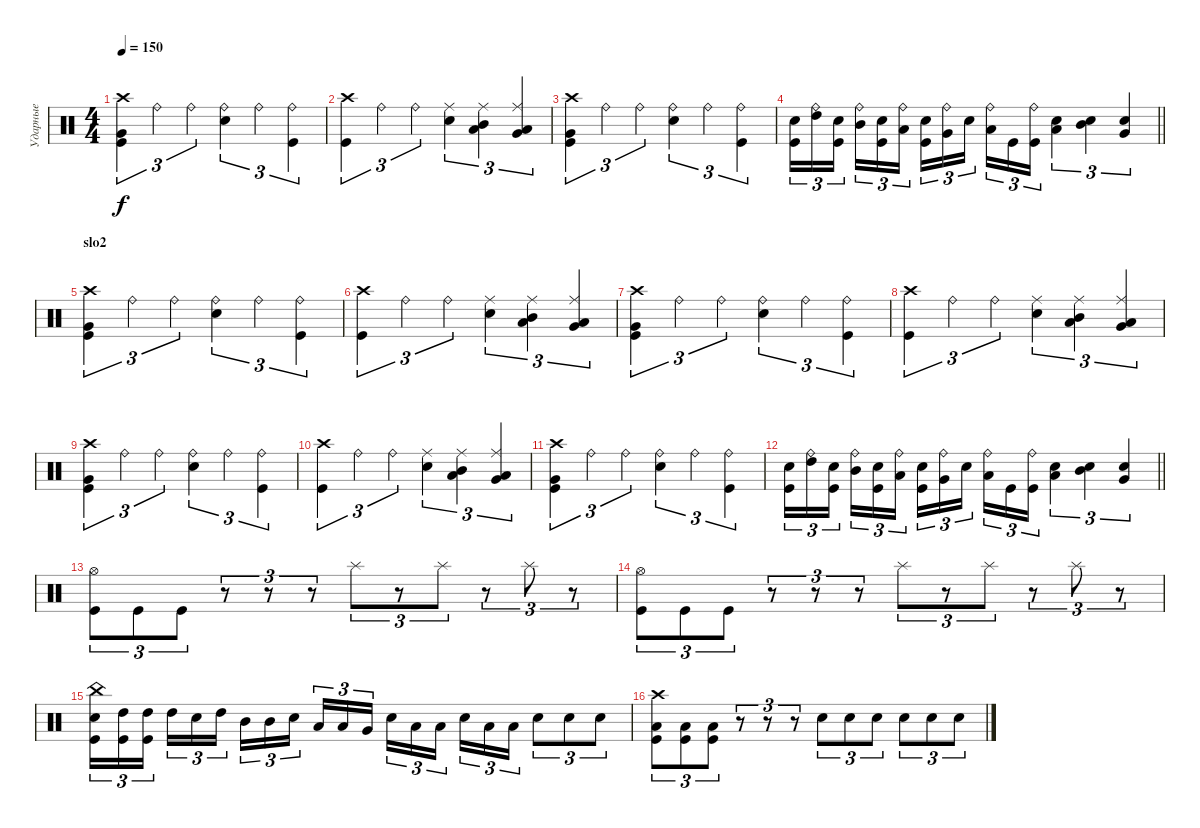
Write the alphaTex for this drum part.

\track ("Ударные" "Ударные") {instrument percussion}
\staff {score}
\articulation defaults
\ts (4 4)
\tempo 150
\clef neutral
\ks c
("Crash high (hit)" "Very Low Tom (hit)" "Kick (hit)").4{tu (3 2) dy f} "Ride (bell)".4{tu (3 2)} "Ride (bell)".4{tu (3 2)} ("Ride (bell)" "Electric Snare (hit)").4{tu (3 2)} "Ride (bell)".4{tu (3 2)} ("Ride (bell)" "Kick (hit)").4{tu (3 2)} |
("Crash high (hit)" "Kick (hit)").4{tu (3 2)} "Ride (bell)".4{tu (3 2)} "Ride (bell)".4{tu (3 2)} ("Ride (middle)" "Electric Snare (hit)").4{tu (3 2)} ("Ride (middle)" "Mid Tom (hit)" "Low Tom (hit)").4{tu (3 2)} ("Ride (middle)" "Very Low Tom (hit)" "Low Floor Tom (hit)").4{tu (3 2)} |
("Crash high (hit)" "Very Low Tom (hit)" "Kick (hit)").4{tu (3 2)} "Ride (bell)".4{tu (3 2)} "Ride (bell)".4{tu (3 2)} ("Ride (bell)" "Electric Snare (hit)").4{tu (3 2)} "Ride (bell)".4{tu (3 2)} ("Ride (bell)" "Kick (hit)").4{tu (3 2)} |
\barLineRight lightlight
("Kick (hit)" "Electric Snare (hit)").16{tu (3 2)} ("Ride (bell)" "High Tom (hit)").16{tu (3 2)} ("Kick (hit)" "Electric Snare (hit)").16{tu (3 2) beam splitsecondary} ("Ride (bell)" "Mid Tom (hit)").16{tu (3 2)} ("Kick (hit)" "Electric Snare (hit)").16{tu (3 2)} ("Ride (bell)" "Low Tom (hit)").16{tu (3 2)} ("Kick (hit)" "Electric Snare (hit)").16{tu (3 2)} ("Ride (bell)" "Very Low Tom (hit)").16{tu (3 2)} "Electric Snare (hit)".16{tu (3 2) beam splitsecondary} ("Ride (bell)" "Low Floor Tom (hit)").16{tu (3 2)} "Kick (hit)".16{tu (3 2)} ("Ride (bell)" "Kick (hit)").16{tu (3 2)} ("Low Tom (hit)" "Electric Snare (hit)").4{tu (3 2)} ("Mid Tom (hit)" "Electric Snare (hit)").4{tu (3 2)} ("Very Low Tom (hit)" "Electric Snare (hit)").4{tu (3 2)} |
\section ("" "slo2")
("Crash high (hit)" "Very Low Tom (hit)" "Kick (hit)").4{tu (3 2)} "Ride (bell)".4{tu (3 2)} "Ride (bell)".4{tu (3 2)} ("Ride (bell)" "Electric Snare (hit)").4{tu (3 2)} "Ride (bell)".4{tu (3 2)} ("Ride (bell)" "Kick (hit)").4{tu (3 2)} |
("Crash high (hit)" "Kick (hit)").4{tu (3 2)} "Ride (bell)".4{tu (3 2)} "Ride (bell)".4{tu (3 2)} ("Ride (middle)" "Electric Snare (hit)").4{tu (3 2)} ("Ride (middle)" "Mid Tom (hit)" "Low Tom (hit)").4{tu (3 2)} ("Ride (middle)" "Very Low Tom (hit)" "Low Floor Tom (hit)").4{tu (3 2)} |
("Crash high (hit)" "Very Low Tom (hit)" "Kick (hit)").4{tu (3 2)} "Ride (bell)".4{tu (3 2)} "Ride (bell)".4{tu (3 2)} ("Ride (bell)" "Electric Snare (hit)").4{tu (3 2)} "Ride (bell)".4{tu (3 2)} ("Ride (bell)" "Kick (hit)").4{tu (3 2)} |
("Crash high (hit)" "Kick (hit)").4{tu (3 2)} "Ride (bell)".4{tu (3 2)} "Ride (bell)".4{tu (3 2)} ("Ride (middle)" "Electric Snare (hit)").4{tu (3 2)} ("Ride (middle)" "Mid Tom (hit)" "Low Tom (hit)").4{tu (3 2)} ("Ride (middle)" "Very Low Tom (hit)" "Low Floor Tom (hit)").4{tu (3 2)} |
("Crash high (hit)" "Very Low Tom (hit)" "Kick (hit)").4{tu (3 2)} "Ride (bell)".4{tu (3 2)} "Ride (bell)".4{tu (3 2)} ("Ride (bell)" "Electric Snare (hit)").4{tu (3 2)} "Ride (bell)".4{tu (3 2)} ("Ride (bell)" "Kick (hit)").4{tu (3 2)} |
("Crash high (hit)" "Kick (hit)").4{tu (3 2)} "Ride (bell)".4{tu (3 2)} "Ride (bell)".4{tu (3 2)} ("Ride (middle)" "Electric Snare (hit)").4{tu (3 2)} ("Ride (middle)" "Mid Tom (hit)" "Low Tom (hit)").4{tu (3 2)} ("Ride (middle)" "Very Low Tom (hit)" "Low Floor Tom (hit)").4{tu (3 2)} |
("Crash high (hit)" "Very Low Tom (hit)" "Kick (hit)").4{tu (3 2)} "Ride (bell)".4{tu (3 2)} "Ride (bell)".4{tu (3 2)} ("Ride (bell)" "Electric Snare (hit)").4{tu (3 2)} "Ride (bell)".4{tu (3 2)} ("Ride (bell)" "Kick (hit)").4{tu (3 2)} |
\barLineRight lightlight
("Kick (hit)" "Electric Snare (hit)").16{tu (3 2)} ("Ride (bell)" "High Tom (hit)").16{tu (3 2)} ("Kick (hit)" "Electric Snare (hit)").16{tu (3 2) beam splitsecondary} ("Ride (bell)" "Mid Tom (hit)").16{tu (3 2)} ("Kick (hit)" "Electric Snare (hit)").16{tu (3 2)} ("Ride (bell)" "Low Tom (hit)").16{tu (3 2)} ("Kick (hit)" "Electric Snare (hit)").16{tu (3 2)} ("Ride (bell)" "Very Low Tom (hit)").16{tu (3 2)} "Electric Snare (hit)".16{tu (3 2) beam splitsecondary} ("Ride (bell)" "Low Floor Tom (hit)").16{tu (3 2)} "Kick (hit)".16{tu (3 2)} ("Ride (bell)" "Kick (hit)").16{tu (3 2)} ("Low Tom (hit)" "Electric Snare (hit)").4{tu (3 2)} ("Mid Tom (hit)" "Electric Snare (hit)").4{tu (3 2)} ("Very Low Tom (hit)" "Electric Snare (hit)").4{tu (3 2)} |
("Kick (hit)" "Hi-Hat (open)").8{tu (3 2)} "Kick (hit)".8{tu (3 2)} "Kick (hit)".8{tu (3 2)} r.8{tu (3 2)} r.8{tu (3 2)} r.8{tu (3 2)} "Splash (hit)".8{tu (3 2)} r.8{tu (3 2)} "Splash (hit)".8{tu (3 2)} r.8{tu (3 2)} "Splash (hit)".8{tu (3 2)} r.8{tu (3 2)} |
("Kick (hit)" "Hi-Hat (open)").8{tu (3 2)} "Kick (hit)".8{tu (3 2)} "Kick (hit)".8{tu (3 2)} r.8{tu (3 2)} r.8{tu (3 2)} r.8{tu (3 2)} "Splash (hit)".8{tu (3 2)} r.8{tu (3 2)} "Splash (hit)".8{tu (3 2)} r.8{tu (3 2)} "Splash (hit)".8{tu (3 2)} r.8{tu (3 2)} |
("Kick (hit)" "Electric Snare (hit)" "China (hit)").16{tu (3 2)} ("Kick (hit)" "High Tom (hit)").16{tu (3 2)} ("Kick (hit)" "High Tom (hit)").16{tu (3 2) beam splitsecondary} "High Tom (hit)".16{tu (3 2)} "Electric Snare (hit)".16{tu (3 2)} "High Tom (hit)".16{tu (3 2)} "Mid Tom (hit)".16{tu (3 2)} "Mid Tom (hit)".16{tu (3 2)} "Electric Snare (hit)".16{tu (3 2) beam splitsecondary} "Low Tom (hit)".16{tu (3 2)} "Low Tom (hit)".16{tu (3 2)} "Very Low Tom (hit)".16{tu (3 2)} "Electric Snare (hit)".16{tu (3 2)} "Low Floor Tom (hit)".16{tu (3 2)} "Low Floor Tom (hit)".16{tu (3 2) beam splitsecondary} "Electric Snare (hit)".16{tu (3 2)} "Low Floor Tom (hit)".16{tu (3 2)} "Low Floor Tom (hit)".16{tu (3 2)} "Electric Snare (hit)".8{tu (3 2)} "Electric Snare (hit)".8{tu (3 2)} "Electric Snare (hit)".8{tu (3 2)} |
("Kick (hit)" "Low Floor Tom (hit)" "Crash high (hit)").8{tu (3 2)} ("Kick (hit)" "Low Floor Tom (hit)").8{tu (3 2)} ("Kick (hit)" "Low Floor Tom (hit)").8{tu (3 2)} r.8{tu (3 2)} r.8{tu (3 2)} r.8{tu (3 2)} "Electric Snare (hit)".8{tu (3 2)} "Electric Snare (hit)".8{tu (3 2)} "Electric Snare (hit)".8{tu (3 2)} "Electric Snare (hit)".8{tu (3 2)} "Electric Snare (hit)".8{tu (3 2)} "Electric Snare (hit)".8{tu (3 2)}
